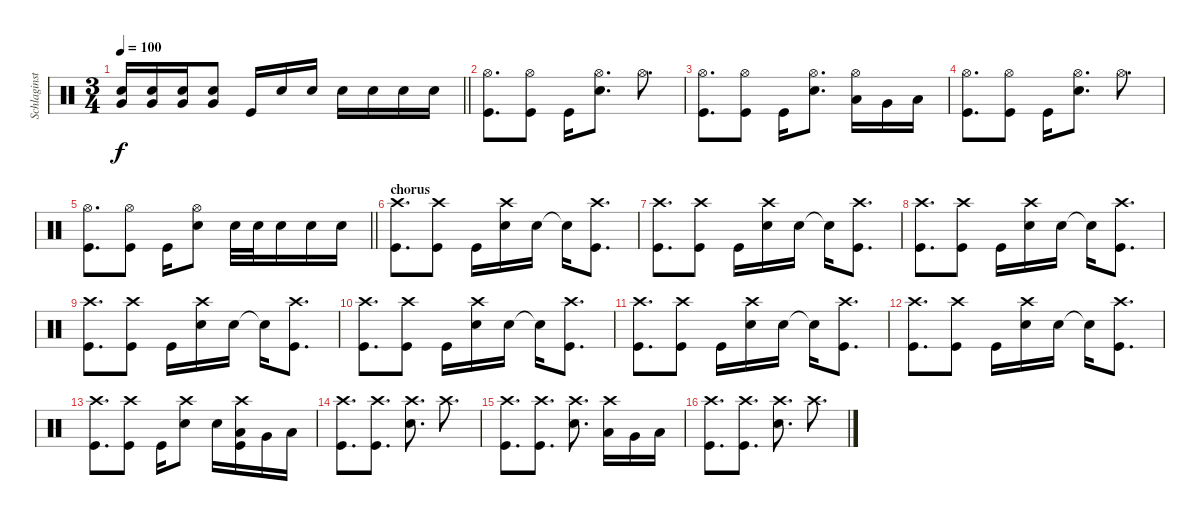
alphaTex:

\track ("Schlaginstrumente - Auswahl" "Schlaginst") {instrument percussion}
\staff {score}
\articulation defaults
\ts (3 4)
\tempo 100
\clef neutral
\barLineRight lightlight
\ks c
("Snare (hit) 2" "Very Low Tom (hit)").16{dy f} ("Snare (hit) 2" "Very Low Tom (hit)").16 ("Snare (hit) 2" "Very Low Tom (hit)").16 ("Snare (hit) 2" "Very Low Tom (hit)").8 "Kick (hit)".16{volume 16} "Snare (hit) 2".16 "Snare (hit) 2".16 "Snare (hit) 2".16 "Snare (hit) 2".16 "Snare (hit) 2".16 "Snare (hit) 2".16 |
("Hi-Hat (open)" "Kick (hit)").8{d} ("Hi-Hat (open)" "Kick (hit)").8 "Kick (hit)".16 ("Hi-Hat (open)" "Snare (hit) 2").8{d} "Hi-Hat (open)".8{d} |
("Hi-Hat (open)" "Kick (hit)").8{d} ("Hi-Hat (open)" "Kick (hit)").8 "Kick (hit)".16 ("Hi-Hat (open)" "Snare (hit) 2").8{d} ("Hi-Hat (open)" "Low Floor Tom (hit)").16 "Very Low Tom (hit)".16 "Low Tom (hit)".16 |
("Hi-Hat (open)" "Kick (hit)").8{d} ("Hi-Hat (open)" "Kick (hit)").8 "Kick (hit)".16 ("Hi-Hat (open)" "Snare (hit) 2").8{d} "Hi-Hat (open)".8{d} |
\barLineRight lightlight
("Hi-Hat (open)" "Kick (hit)").8{d} ("Hi-Hat (open)" "Kick (hit)").8 "Kick (hit)".16 ("Hi-Hat (open)" "Snare (hit) 2").8 "Snare (hit) 2".32 "Snare (hit) 2".32 "Snare (hit) 2".16 "Snare (hit) 2".16 "Snare (hit) 2".16 |
\section ("" "chorus")
("Crash high (hit)" "Kick (hit)").8{d} ("Crash high (hit)" "Kick (hit)").8 "Kick (hit)".16 ("Crash high (hit)" "Snare (hit) 2").16 "Snare (hit) 2".16 "Snare (hit) 2"{t}.16 ("Crash high (hit)" "Kick (hit)").8{d} |
("Crash high (hit)" "Kick (hit)").8{d} ("Crash high (hit)" "Kick (hit)").8 "Kick (hit)".16 ("Crash high (hit)" "Snare (hit) 2").16 "Snare (hit) 2".16 "Snare (hit) 2"{t}.16 ("Crash high (hit)" "Kick (hit)").8{d} |
("Crash high (hit)" "Kick (hit)").8{d} ("Crash high (hit)" "Kick (hit)").8 "Kick (hit)".16 ("Crash high (hit)" "Snare (hit) 2").16 "Snare (hit) 2".16 "Snare (hit) 2"{t}.16 ("Crash high (hit)" "Kick (hit)").8{d} |
("Crash high (hit)" "Kick (hit)").8{d} ("Crash high (hit)" "Kick (hit)").8 "Kick (hit)".16 ("Crash high (hit)" "Snare (hit) 2").16 "Snare (hit) 2".16 "Snare (hit) 2"{t}.16 ("Crash high (hit)" "Kick (hit)").8{d} |
("Crash high (hit)" "Kick (hit)").8{d} ("Crash high (hit)" "Kick (hit)").8 "Kick (hit)".16 ("Crash high (hit)" "Snare (hit) 2").16 "Snare (hit) 2".16 "Snare (hit) 2"{t}.16 ("Crash high (hit)" "Kick (hit)").8{d} |
("Crash high (hit)" "Kick (hit)").8{d} ("Crash high (hit)" "Kick (hit)").8 "Kick (hit)".16 ("Crash high (hit)" "Snare (hit) 2").16 "Snare (hit) 2".16 "Snare (hit) 2"{t}.16 ("Crash high (hit)" "Kick (hit)").8{d} |
("Crash high (hit)" "Kick (hit)").8{d} ("Crash high (hit)" "Kick (hit)").8 "Kick (hit)".16 ("Crash high (hit)" "Snare (hit) 2").16 "Snare (hit) 2".16 "Snare (hit) 2"{t}.16 ("Crash high (hit)" "Kick (hit)").8{d} |
("Crash high (hit)" "Kick (hit)").8{d} ("Crash high (hit)" "Kick (hit)").8 "Kick (hit)".16 ("Crash high (hit)" "Snare (hit) 2").8 "Snare (hit) 2".16 ("Crash high (hit)" "Low Tom (hit)" "Kick (hit)").16 "Very Low Tom (hit)".16 "Low Floor Tom (hit)".16 |
("Crash high (hit)" "Kick (hit)").8{d} ("Crash high (hit)" "Kick (hit)").8{d} ("Crash high (hit)" "Snare (hit) 2").8{d} "Crash high (hit)".8{d} |
("Crash high (hit)" "Kick (hit)").8{d} ("Crash high (hit)" "Kick (hit)").8{d} ("Crash high (hit)" "Snare (hit) 2").8{d} ("Crash high (hit)" "Low Floor Tom (hit)").16 "Very Low Tom (hit)".16 "Low Tom (hit)".16 |
("Crash high (hit)" "Kick (hit)").8{d} ("Crash high (hit)" "Kick (hit)").8{d} ("Crash high (hit)" "Snare (hit) 2").8{d} "Crash high (hit)".8{d}
